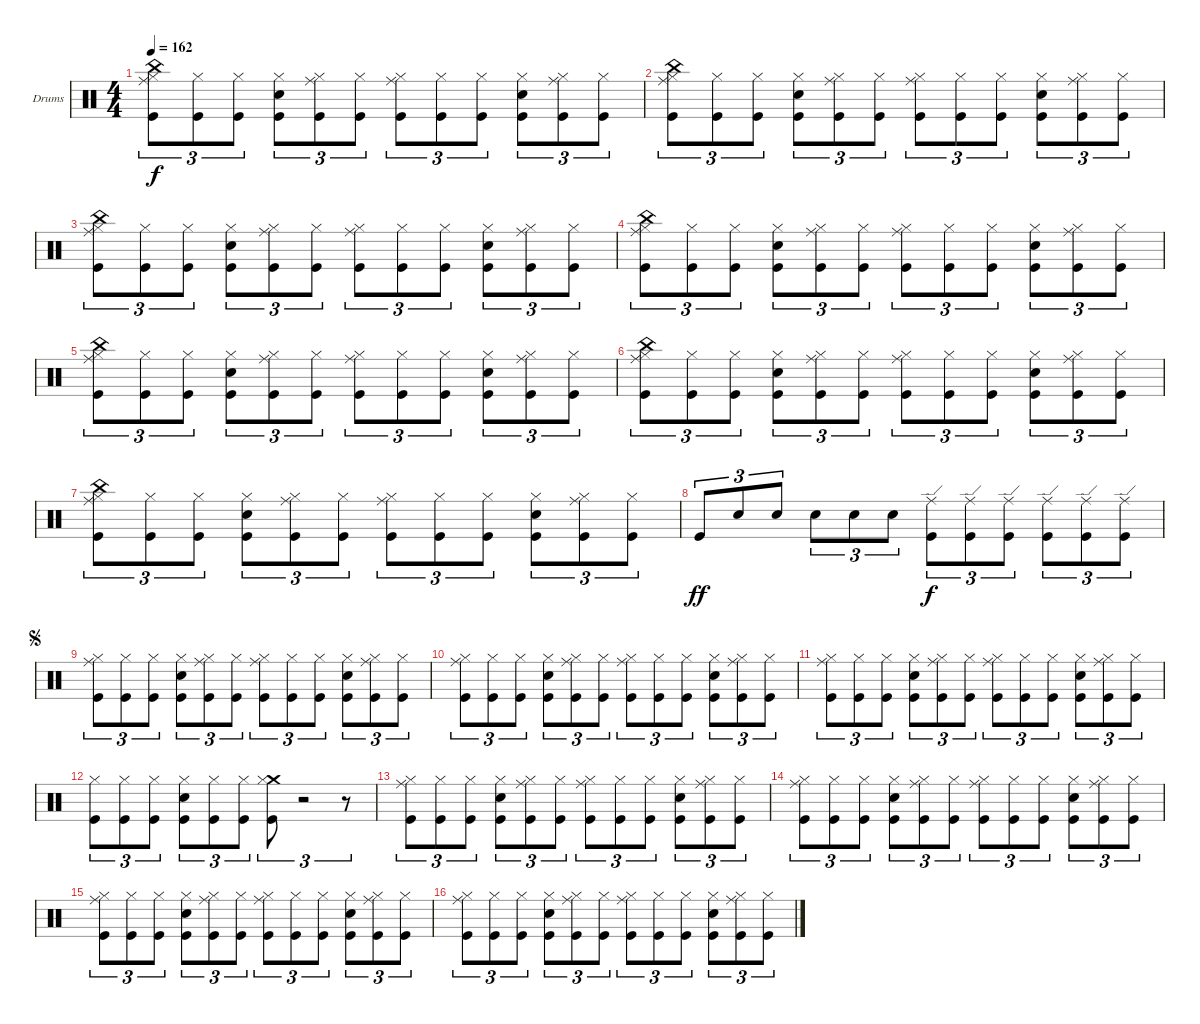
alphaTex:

\bracketExtendMode groupsimilarinstruments
\firstSystemTrackNameOrientation horizontal
\otherSystemsTrackNameOrientation horizontal
\track ("Drumkit" "Drums") {instrument percussion}
\staff {score}
\articulation defaults
\ts (4 4)
\tempo 162
\clef neutral
\ks c
("Kick (hit)" "Ride (middle)" "China (hit)" "Hi-Hat (closed)").8{tu (3 2) dy f} ("Kick (hit)" "Hi-Hat (closed)").8{tu (3 2)} ("Kick (hit)" "Hi-Hat (closed)").8{tu (3 2)} ("Kick (hit)" "Snare (hit) 2" "Hi-Hat (closed)").8{tu (3 2)} ("Kick (hit)" "Ride (middle)" "Hi-Hat (closed)").8{tu (3 2)} ("Kick (hit)" "Hi-Hat (closed)").8{tu (3 2)} ("Kick (hit)" "Ride (middle)" "Hi-Hat (closed)").8{tu (3 2)} ("Kick (hit)" "Hi-Hat (closed)").8{tu (3 2)} ("Kick (hit)" "Hi-Hat (closed)").8{tu (3 2)} ("Kick (hit)" "Snare (hit) 2" "Hi-Hat (closed)").8{tu (3 2)} ("Kick (hit)" "Ride (middle)" "Hi-Hat (closed)").8{tu (3 2)} ("Kick (hit)" "Hi-Hat (closed)").8{tu (3 2)} |
("Kick (hit)" "Ride (middle)" "China (hit)" "Hi-Hat (closed)").8{tu (3 2)} ("Kick (hit)" "Hi-Hat (closed)").8{tu (3 2)} ("Kick (hit)" "Hi-Hat (closed)").8{tu (3 2)} ("Kick (hit)" "Snare (hit) 2" "Hi-Hat (closed)").8{tu (3 2)} ("Kick (hit)" "Ride (middle)" "Hi-Hat (closed)").8{tu (3 2)} ("Kick (hit)" "Hi-Hat (closed)").8{tu (3 2)} ("Kick (hit)" "Ride (middle)" "Hi-Hat (closed)").8{tu (3 2)} ("Kick (hit)" "Hi-Hat (closed)").8{tu (3 2)} ("Kick (hit)" "Hi-Hat (closed)").8{tu (3 2)} ("Kick (hit)" "Snare (hit) 2" "Hi-Hat (closed)").8{tu (3 2)} ("Kick (hit)" "Ride (middle)" "Hi-Hat (closed)").8{tu (3 2)} ("Kick (hit)" "Hi-Hat (closed)").8{tu (3 2)} |
("Kick (hit)" "Ride (middle)" "China (hit)" "Hi-Hat (closed)").8{tu (3 2)} ("Kick (hit)" "Hi-Hat (closed)").8{tu (3 2)} ("Kick (hit)" "Hi-Hat (closed)").8{tu (3 2)} ("Kick (hit)" "Snare (hit) 2" "Hi-Hat (closed)").8{tu (3 2)} ("Kick (hit)" "Ride (middle)" "Hi-Hat (closed)").8{tu (3 2)} ("Kick (hit)" "Hi-Hat (closed)").8{tu (3 2)} ("Kick (hit)" "Ride (middle)" "Hi-Hat (closed)").8{tu (3 2)} ("Kick (hit)" "Hi-Hat (closed)").8{tu (3 2)} ("Kick (hit)" "Hi-Hat (closed)").8{tu (3 2)} ("Kick (hit)" "Snare (hit) 2" "Hi-Hat (closed)").8{tu (3 2)} ("Kick (hit)" "Ride (middle)" "Hi-Hat (closed)").8{tu (3 2)} ("Kick (hit)" "Hi-Hat (closed)").8{tu (3 2)} |
("Kick (hit)" "Ride (middle)" "China (hit)" "Hi-Hat (closed)").8{tu (3 2)} ("Kick (hit)" "Hi-Hat (closed)").8{tu (3 2)} ("Kick (hit)" "Hi-Hat (closed)").8{tu (3 2)} ("Kick (hit)" "Snare (hit) 2" "Hi-Hat (closed)").8{tu (3 2)} ("Kick (hit)" "Ride (middle)" "Hi-Hat (closed)").8{tu (3 2)} ("Kick (hit)" "Hi-Hat (closed)").8{tu (3 2)} ("Kick (hit)" "Ride (middle)" "Hi-Hat (closed)").8{tu (3 2)} ("Kick (hit)" "Hi-Hat (closed)").8{tu (3 2)} ("Kick (hit)" "Hi-Hat (closed)").8{tu (3 2)} ("Kick (hit)" "Snare (hit) 2" "Hi-Hat (closed)").8{tu (3 2)} ("Kick (hit)" "Ride (middle)" "Hi-Hat (closed)").8{tu (3 2)} ("Kick (hit)" "Hi-Hat (closed)").8{tu (3 2)} |
("Kick (hit)" "Ride (middle)" "China (hit)" "Hi-Hat (closed)").8{tu (3 2)} ("Kick (hit)" "Hi-Hat (closed)").8{tu (3 2)} ("Kick (hit)" "Hi-Hat (closed)").8{tu (3 2)} ("Kick (hit)" "Snare (hit) 2" "Hi-Hat (closed)").8{tu (3 2)} ("Kick (hit)" "Ride (middle)" "Hi-Hat (closed)").8{tu (3 2)} ("Kick (hit)" "Hi-Hat (closed)").8{tu (3 2)} ("Kick (hit)" "Ride (middle)" "Hi-Hat (closed)").8{tu (3 2)} ("Kick (hit)" "Hi-Hat (closed)").8{tu (3 2)} ("Kick (hit)" "Hi-Hat (closed)").8{tu (3 2)} ("Kick (hit)" "Snare (hit) 2" "Hi-Hat (closed)").8{tu (3 2)} ("Kick (hit)" "Ride (middle)" "Hi-Hat (closed)").8{tu (3 2)} ("Kick (hit)" "Hi-Hat (closed)").8{tu (3 2)} |
("Kick (hit)" "Ride (middle)" "China (hit)" "Hi-Hat (closed)").8{tu (3 2)} ("Kick (hit)" "Hi-Hat (closed)").8{tu (3 2)} ("Kick (hit)" "Hi-Hat (closed)").8{tu (3 2)} ("Kick (hit)" "Snare (hit) 2" "Hi-Hat (closed)").8{tu (3 2)} ("Kick (hit)" "Ride (middle)" "Hi-Hat (closed)").8{tu (3 2)} ("Kick (hit)" "Hi-Hat (closed)").8{tu (3 2)} ("Kick (hit)" "Ride (middle)" "Hi-Hat (closed)").8{tu (3 2)} ("Kick (hit)" "Hi-Hat (closed)").8{tu (3 2)} ("Kick (hit)" "Hi-Hat (closed)").8{tu (3 2)} ("Kick (hit)" "Snare (hit) 2" "Hi-Hat (closed)").8{tu (3 2)} ("Kick (hit)" "Ride (middle)" "Hi-Hat (closed)").8{tu (3 2)} ("Kick (hit)" "Hi-Hat (closed)").8{tu (3 2)} |
("Kick (hit)" "Ride (middle)" "China (hit)" "Hi-Hat (closed)").8{tu (3 2)} ("Kick (hit)" "Hi-Hat (closed)").8{tu (3 2)} ("Kick (hit)" "Hi-Hat (closed)").8{tu (3 2)} ("Kick (hit)" "Snare (hit) 2" "Hi-Hat (closed)").8{tu (3 2)} ("Kick (hit)" "Ride (middle)" "Hi-Hat (closed)").8{tu (3 2)} ("Kick (hit)" "Hi-Hat (closed)").8{tu (3 2)} ("Kick (hit)" "Ride (middle)" "Hi-Hat (closed)").8{tu (3 2)} ("Kick (hit)" "Hi-Hat (closed)").8{tu (3 2)} ("Kick (hit)" "Hi-Hat (closed)").8{tu (3 2)} ("Kick (hit)" "Snare (hit) 2" "Hi-Hat (closed)").8{tu (3 2)} ("Kick (hit)" "Ride (middle)" "Hi-Hat (closed)").8{tu (3 2)} ("Kick (hit)" "Hi-Hat (closed)").8{tu (3 2)} |
"Kick (hit)".8{tu (3 2) dy ff} "Snare (hit) 2".8{tu (3 2)} "Snare (hit) 2".8{tu (3 2)} "Snare (hit) 2".8{tu (3 2)} "Snare (hit) 2".8{tu (3 2)} "Snare (hit) 2".8{tu (3 2)} ("Kick (hit)" "Ride (edge)").8{tu (3 2) dy f} ("Kick (hit)" "Ride (edge)").8{tu (3 2)} ("Kick (hit)" "Ride (edge)").8{tu (3 2)} ("Kick (hit)" "Ride (edge)").8{tu (3 2)} ("Kick (hit)" "Ride (edge)").8{tu (3 2)} ("Kick (hit)" "Ride (edge)").8{tu (3 2)} |
\jump segno
("Kick (hit)" "Ride (middle)" "Hi-Hat (closed)").8{tu (3 2)} ("Kick (hit)" "Hi-Hat (closed)").8{tu (3 2)} ("Kick (hit)" "Hi-Hat (closed)").8{tu (3 2)} ("Kick (hit)" "Snare (hit) 2" "Hi-Hat (closed)").8{tu (3 2)} ("Kick (hit)" "Ride (middle)" "Hi-Hat (closed)").8{tu (3 2)} ("Kick (hit)" "Hi-Hat (closed)").8{tu (3 2)} ("Kick (hit)" "Ride (middle)" "Hi-Hat (closed)").8{tu (3 2)} ("Kick (hit)" "Hi-Hat (closed)").8{tu (3 2)} ("Kick (hit)" "Hi-Hat (closed)").8{tu (3 2)} ("Kick (hit)" "Snare (hit) 2" "Hi-Hat (closed)").8{tu (3 2)} ("Kick (hit)" "Ride (middle)" "Hi-Hat (closed)").8{tu (3 2)} ("Kick (hit)" "Hi-Hat (closed)").8{tu (3 2)} |
("Kick (hit)" "Ride (middle)" "Hi-Hat (closed)").8{tu (3 2)} ("Kick (hit)" "Hi-Hat (closed)").8{tu (3 2)} ("Kick (hit)" "Hi-Hat (closed)").8{tu (3 2)} ("Kick (hit)" "Snare (hit) 2" "Hi-Hat (closed)").8{tu (3 2)} ("Kick (hit)" "Ride (middle)" "Hi-Hat (closed)").8{tu (3 2)} ("Kick (hit)" "Hi-Hat (closed)").8{tu (3 2)} ("Kick (hit)" "Ride (middle)" "Hi-Hat (closed)").8{tu (3 2)} ("Kick (hit)" "Hi-Hat (closed)").8{tu (3 2)} ("Kick (hit)" "Hi-Hat (closed)").8{tu (3 2)} ("Kick (hit)" "Snare (hit) 2" "Hi-Hat (closed)").8{tu (3 2)} ("Kick (hit)" "Ride (middle)" "Hi-Hat (closed)").8{tu (3 2)} ("Kick (hit)" "Hi-Hat (closed)").8{tu (3 2)} |
("Kick (hit)" "Ride (middle)" "Hi-Hat (closed)").8{tu (3 2)} ("Kick (hit)" "Hi-Hat (closed)").8{tu (3 2)} ("Kick (hit)" "Hi-Hat (closed)").8{tu (3 2)} ("Kick (hit)" "Snare (hit) 2" "Hi-Hat (closed)").8{tu (3 2)} ("Kick (hit)" "Ride (middle)" "Hi-Hat (closed)").8{tu (3 2)} ("Kick (hit)" "Hi-Hat (closed)").8{tu (3 2)} ("Kick (hit)" "Ride (middle)" "Hi-Hat (closed)").8{tu (3 2)} ("Kick (hit)" "Hi-Hat (closed)").8{tu (3 2)} ("Kick (hit)" "Hi-Hat (closed)").8{tu (3 2)} ("Kick (hit)" "Snare (hit) 2" "Hi-Hat (closed)").8{tu (3 2)} ("Kick (hit)" "Ride (middle)" "Hi-Hat (closed)").8{tu (3 2)} ("Kick (hit)" "Hi-Hat (closed)").8{tu (3 2)} |
("Kick (hit)" "Hi-Hat (closed)").8{tu (3 2)} ("Kick (hit)" "Hi-Hat (closed)").8{tu (3 2)} ("Kick (hit)" "Hi-Hat (closed)").8{tu (3 2)} ("Kick (hit)" "Snare (hit) 2" "Hi-Hat (closed)").8{tu (3 2)} ("Kick (hit)" "Hi-Hat (closed)").8{tu (3 2)} ("Kick (hit)" "Hi-Hat (closed)").8{tu (3 2)} ("Kick (hit)" "Crash medium (hit)" "Hi-Hat (closed)").8{tu (3 2)} r.2{tu (3 2)} r.8{tu (3 2)} |
("Kick (hit)" "Ride (middle)" "Hi-Hat (closed)").8{tu (3 2)} ("Kick (hit)" "Hi-Hat (closed)").8{tu (3 2)} ("Kick (hit)" "Hi-Hat (closed)").8{tu (3 2)} ("Kick (hit)" "Snare (hit) 2" "Hi-Hat (closed)").8{tu (3 2)} ("Kick (hit)" "Ride (middle)" "Hi-Hat (closed)").8{tu (3 2)} ("Kick (hit)" "Hi-Hat (closed)").8{tu (3 2)} ("Kick (hit)" "Ride (middle)" "Hi-Hat (closed)").8{tu (3 2)} ("Kick (hit)" "Hi-Hat (closed)").8{tu (3 2)} ("Kick (hit)" "Hi-Hat (closed)").8{tu (3 2)} ("Kick (hit)" "Snare (hit) 2" "Hi-Hat (closed)").8{tu (3 2)} ("Kick (hit)" "Ride (middle)" "Hi-Hat (closed)").8{tu (3 2)} ("Kick (hit)" "Hi-Hat (closed)").8{tu (3 2)} |
("Kick (hit)" "Ride (middle)" "Hi-Hat (closed)").8{tu (3 2)} ("Kick (hit)" "Hi-Hat (closed)").8{tu (3 2)} ("Kick (hit)" "Hi-Hat (closed)").8{tu (3 2)} ("Kick (hit)" "Snare (hit) 2" "Hi-Hat (closed)").8{tu (3 2)} ("Kick (hit)" "Ride (middle)" "Hi-Hat (closed)").8{tu (3 2)} ("Kick (hit)" "Hi-Hat (closed)").8{tu (3 2)} ("Kick (hit)" "Ride (middle)" "Hi-Hat (closed)").8{tu (3 2)} ("Kick (hit)" "Hi-Hat (closed)").8{tu (3 2)} ("Kick (hit)" "Hi-Hat (closed)").8{tu (3 2)} ("Kick (hit)" "Snare (hit) 2" "Hi-Hat (closed)").8{tu (3 2)} ("Kick (hit)" "Ride (middle)" "Hi-Hat (closed)").8{tu (3 2)} ("Kick (hit)" "Hi-Hat (closed)").8{tu (3 2)} |
("Kick (hit)" "Ride (middle)" "Hi-Hat (closed)").8{tu (3 2)} ("Kick (hit)" "Hi-Hat (closed)").8{tu (3 2)} ("Kick (hit)" "Hi-Hat (closed)").8{tu (3 2)} ("Kick (hit)" "Snare (hit) 2" "Hi-Hat (closed)").8{tu (3 2)} ("Kick (hit)" "Ride (middle)" "Hi-Hat (closed)").8{tu (3 2)} ("Kick (hit)" "Hi-Hat (closed)").8{tu (3 2)} ("Kick (hit)" "Ride (middle)" "Hi-Hat (closed)").8{tu (3 2)} ("Kick (hit)" "Hi-Hat (closed)").8{tu (3 2)} ("Kick (hit)" "Hi-Hat (closed)").8{tu (3 2)} ("Kick (hit)" "Snare (hit) 2" "Hi-Hat (closed)").8{tu (3 2)} ("Kick (hit)" "Ride (middle)" "Hi-Hat (closed)").8{tu (3 2)} ("Kick (hit)" "Hi-Hat (closed)").8{tu (3 2)} |
("Kick (hit)" "Ride (middle)" "Hi-Hat (closed)").8{tu (3 2)} ("Kick (hit)" "Hi-Hat (closed)").8{tu (3 2)} ("Kick (hit)" "Hi-Hat (closed)").8{tu (3 2)} ("Kick (hit)" "Snare (hit) 2" "Hi-Hat (closed)").8{tu (3 2)} ("Kick (hit)" "Ride (middle)" "Hi-Hat (closed)").8{tu (3 2)} ("Kick (hit)" "Hi-Hat (closed)").8{tu (3 2)} ("Kick (hit)" "Ride (middle)" "Hi-Hat (closed)").8{tu (3 2)} ("Kick (hit)" "Hi-Hat (closed)").8{tu (3 2)} ("Kick (hit)" "Hi-Hat (closed)").8{tu (3 2)} ("Kick (hit)" "Snare (hit) 2" "Hi-Hat (closed)").8{tu (3 2)} ("Kick (hit)" "Ride (middle)" "Hi-Hat (closed)").8{tu (3 2)} ("Kick (hit)" "Hi-Hat (closed)").8{tu (3 2)}
